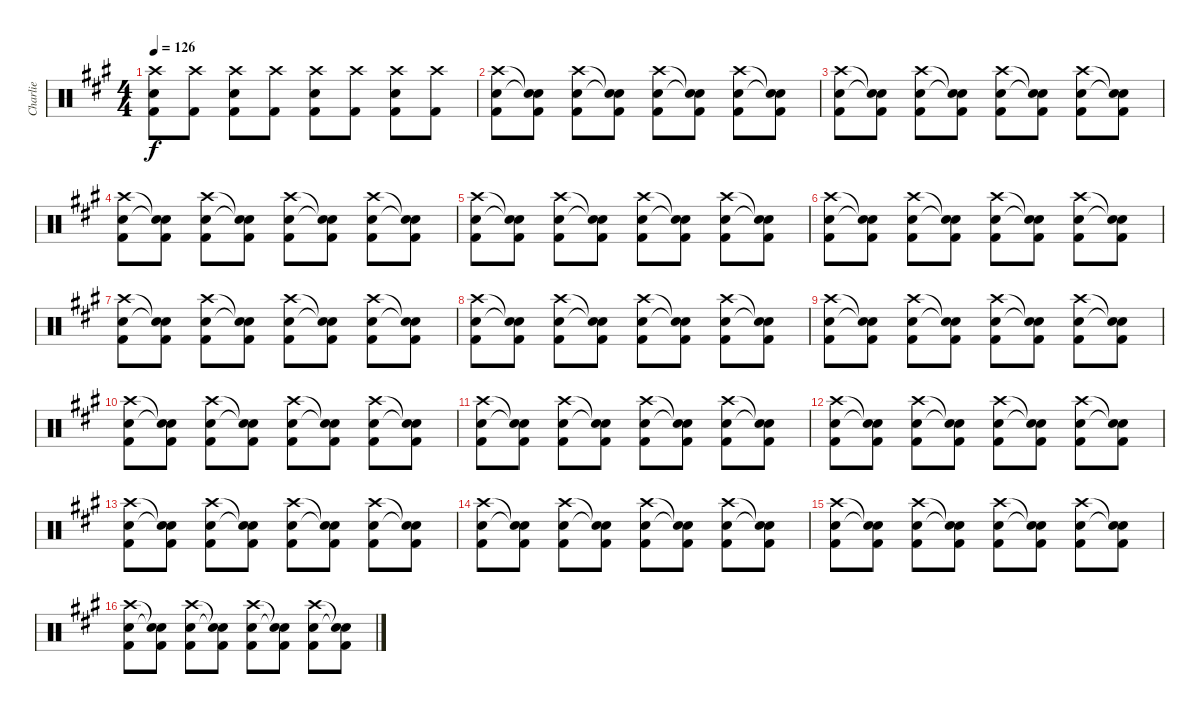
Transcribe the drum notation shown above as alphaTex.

\track ("Charlie" "Charlie") {instrument percussion}
\staff {score}
\articulation defaults
\ts (4 4)
\tempo 126
\clef neutral
\ks a
("Crash high (hit)" "Snare (hit) 2" "Kick (hit) 2").8{dy f} ("Crash high (hit)" "Kick (hit) 2").8 ("Crash high (hit)" "Snare (hit) 2" "Kick (hit) 2").8 ("Crash high (hit)" "Kick (hit) 2").8 ("Crash high (hit)" "Snare (hit) 2" "Kick (hit) 2").8 ("Crash high (hit)" "Kick (hit) 2").8 ("Crash high (hit)" "Snare (hit) 2" "Kick (hit) 2").8 ("Crash high (hit)" "Kick (hit) 2").8 |
("Crash high (hit)" "Snare (hit) 2" "Kick (hit) 2").8 ("Snare (hit)"{t} "Snare (hit)"{t} "Kick (hit) 2").8 ("Crash high (hit)" "Snare (hit) 2" "Kick (hit) 2").8 ("Snare (hit)"{t} "Snare (hit)"{t} "Kick (hit) 2").8 ("Crash high (hit)" "Snare (hit) 2" "Kick (hit) 2").8 ("Snare (hit)"{t} "Snare (hit)"{t} "Kick (hit) 2").8 ("Crash high (hit)" "Snare (hit) 2" "Kick (hit) 2").8 ("Snare (hit)"{t} "Snare (hit)"{t} "Kick (hit) 2").8 |
("Crash high (hit)" "Snare (hit) 2" "Kick (hit) 2").8 ("Snare (hit)"{t} "Snare (hit)"{t} "Kick (hit) 2").8 ("Crash high (hit)" "Snare (hit) 2" "Kick (hit) 2").8 ("Snare (hit)"{t} "Snare (hit)"{t} "Kick (hit) 2").8 ("Crash high (hit)" "Snare (hit) 2" "Kick (hit) 2").8 ("Snare (hit)"{t} "Snare (hit)"{t} "Kick (hit) 2").8 ("Crash high (hit)" "Snare (hit) 2" "Kick (hit) 2").8 ("Snare (hit)"{t} "Snare (hit)"{t} "Kick (hit) 2").8 |
("Crash high (hit)" "Snare (hit) 2" "Kick (hit) 2").8 ("Snare (hit)"{t} "Snare (hit)"{t} "Kick (hit) 2").8 ("Crash high (hit)" "Snare (hit) 2" "Kick (hit) 2").8 ("Snare (hit)"{t} "Snare (hit)"{t} "Kick (hit) 2").8 ("Crash high (hit)" "Snare (hit) 2" "Kick (hit) 2").8 ("Snare (hit)"{t} "Snare (hit)"{t} "Kick (hit) 2").8 ("Crash high (hit)" "Snare (hit) 2" "Kick (hit) 2").8 ("Snare (hit)"{t} "Snare (hit)"{t} "Kick (hit) 2").8 |
("Crash high (hit)" "Snare (hit) 2" "Kick (hit) 2").8 ("Snare (hit)"{t} "Snare (hit)"{t} "Kick (hit) 2").8 ("Crash high (hit)" "Snare (hit) 2" "Kick (hit) 2").8 ("Snare (hit)"{t} "Snare (hit)"{t} "Kick (hit) 2").8 ("Crash high (hit)" "Snare (hit) 2" "Kick (hit) 2").8 ("Snare (hit)"{t} "Snare (hit)"{t} "Kick (hit) 2").8 ("Crash high (hit)" "Snare (hit) 2" "Kick (hit) 2").8 ("Snare (hit)"{t} "Snare (hit)"{t} "Kick (hit) 2").8 |
("Crash high (hit)" "Snare (hit) 2" "Kick (hit) 2").8 ("Snare (hit)"{t} "Snare (hit)"{t} "Kick (hit) 2").8 ("Crash high (hit)" "Snare (hit) 2" "Kick (hit) 2").8 ("Snare (hit)"{t} "Snare (hit)"{t} "Kick (hit) 2").8 ("Crash high (hit)" "Snare (hit) 2" "Kick (hit) 2").8 ("Snare (hit)"{t} "Snare (hit)"{t} "Kick (hit) 2").8 ("Crash high (hit)" "Snare (hit) 2" "Kick (hit) 2").8 ("Snare (hit)"{t} "Snare (hit)"{t} "Kick (hit) 2").8 |
("Crash high (hit)" "Snare (hit) 2" "Kick (hit) 2").8 ("Snare (hit)"{t} "Snare (hit)"{t} "Kick (hit) 2").8 ("Crash high (hit)" "Snare (hit) 2" "Kick (hit) 2").8 ("Snare (hit)"{t} "Snare (hit)"{t} "Kick (hit) 2").8 ("Crash high (hit)" "Snare (hit) 2" "Kick (hit) 2").8 ("Snare (hit)"{t} "Snare (hit)"{t} "Kick (hit) 2").8 ("Crash high (hit)" "Snare (hit) 2" "Kick (hit) 2").8 ("Snare (hit)"{t} "Snare (hit)"{t} "Kick (hit) 2").8 |
("Crash high (hit)" "Snare (hit) 2" "Kick (hit) 2").8 ("Snare (hit)"{t} "Snare (hit)"{t} "Kick (hit) 2").8 ("Crash high (hit)" "Snare (hit) 2" "Kick (hit) 2").8 ("Snare (hit)"{t} "Snare (hit)"{t} "Kick (hit) 2").8 ("Crash high (hit)" "Snare (hit) 2" "Kick (hit) 2").8 ("Snare (hit)"{t} "Snare (hit)"{t} "Kick (hit) 2").8 ("Crash high (hit)" "Snare (hit) 2" "Kick (hit) 2").8 ("Snare (hit)"{t} "Snare (hit)"{t} "Kick (hit) 2").8 |
("Crash high (hit)" "Snare (hit) 2" "Kick (hit) 2").8 ("Snare (hit)"{t} "Snare (hit)"{t} "Kick (hit) 2").8 ("Crash high (hit)" "Snare (hit) 2" "Kick (hit) 2").8 ("Snare (hit)"{t} "Snare (hit)"{t} "Kick (hit) 2").8 ("Crash high (hit)" "Snare (hit) 2" "Kick (hit) 2").8 ("Snare (hit)"{t} "Snare (hit)"{t} "Kick (hit) 2").8 ("Crash high (hit)" "Snare (hit) 2" "Kick (hit) 2").8 ("Snare (hit)"{t} "Snare (hit)"{t} "Kick (hit) 2").8 |
("Crash high (hit)" "Snare (hit) 2" "Kick (hit) 2").8 ("Snare (hit)"{t} "Snare (hit)"{t} "Kick (hit) 2").8 ("Crash high (hit)" "Snare (hit) 2" "Kick (hit) 2").8 ("Snare (hit)"{t} "Snare (hit)"{t} "Kick (hit) 2").8 ("Crash high (hit)" "Snare (hit) 2" "Kick (hit) 2").8 ("Snare (hit)"{t} "Snare (hit)"{t} "Kick (hit) 2").8 ("Crash high (hit)" "Snare (hit) 2" "Kick (hit) 2").8 ("Snare (hit)"{t} "Snare (hit)"{t} "Kick (hit) 2").8 |
("Crash high (hit)" "Snare (hit) 2" "Kick (hit) 2").8 ("Snare (hit)"{t} "Snare (hit)"{t} "Kick (hit) 2").8 ("Crash high (hit)" "Snare (hit) 2" "Kick (hit) 2").8 ("Snare (hit)"{t} "Snare (hit)"{t} "Kick (hit) 2").8 ("Crash high (hit)" "Snare (hit) 2" "Kick (hit) 2").8 ("Snare (hit)"{t} "Snare (hit)"{t} "Kick (hit) 2").8 ("Crash high (hit)" "Snare (hit) 2" "Kick (hit) 2").8 ("Snare (hit)"{t} "Snare (hit)"{t} "Kick (hit) 2").8 |
("Crash high (hit)" "Snare (hit) 2" "Kick (hit) 2").8 ("Snare (hit)"{t} "Snare (hit)"{t} "Kick (hit) 2").8 ("Crash high (hit)" "Snare (hit) 2" "Kick (hit) 2").8 ("Snare (hit)"{t} "Snare (hit)"{t} "Kick (hit) 2").8 ("Crash high (hit)" "Snare (hit) 2" "Kick (hit) 2").8 ("Snare (hit)"{t} "Snare (hit)"{t} "Kick (hit) 2").8 ("Crash high (hit)" "Snare (hit) 2" "Kick (hit) 2").8 ("Snare (hit)"{t} "Snare (hit)"{t} "Kick (hit) 2").8 |
("Crash high (hit)" "Snare (hit) 2" "Kick (hit) 2").8 ("Snare (hit)"{t} "Snare (hit)"{t} "Kick (hit) 2").8 ("Crash high (hit)" "Snare (hit) 2" "Kick (hit) 2").8 ("Snare (hit)"{t} "Snare (hit)"{t} "Kick (hit) 2").8 ("Crash high (hit)" "Snare (hit) 2" "Kick (hit) 2").8 ("Snare (hit)"{t} "Snare (hit)"{t} "Kick (hit) 2").8 ("Crash high (hit)" "Snare (hit) 2" "Kick (hit) 2").8 ("Snare (hit)"{t} "Snare (hit)"{t} "Kick (hit) 2").8 |
("Crash high (hit)" "Snare (hit) 2" "Kick (hit) 2").8 ("Snare (hit)"{t} "Snare (hit)"{t} "Kick (hit) 2").8 ("Crash high (hit)" "Snare (hit) 2" "Kick (hit) 2").8 ("Snare (hit)"{t} "Snare (hit)"{t} "Kick (hit) 2").8 ("Crash high (hit)" "Snare (hit) 2" "Kick (hit) 2").8 ("Snare (hit)"{t} "Snare (hit)"{t} "Kick (hit) 2").8 ("Crash high (hit)" "Snare (hit) 2" "Kick (hit) 2").8 ("Snare (hit)"{t} "Snare (hit)"{t} "Kick (hit) 2").8 |
("Crash high (hit)" "Snare (hit) 2" "Kick (hit) 2").8 ("Snare (hit)"{t} "Snare (hit)"{t} "Kick (hit) 2").8 ("Crash high (hit)" "Snare (hit) 2" "Kick (hit) 2").8 ("Snare (hit)"{t} "Snare (hit)"{t} "Kick (hit) 2").8 ("Crash high (hit)" "Snare (hit) 2" "Kick (hit) 2").8 ("Snare (hit)"{t} "Snare (hit)"{t} "Kick (hit) 2").8 ("Crash high (hit)" "Snare (hit) 2" "Kick (hit) 2").8 ("Snare (hit)"{t} "Snare (hit)"{t} "Kick (hit) 2").8 |
("Crash high (hit)" "Snare (hit) 2" "Kick (hit) 2").8 ("Snare (hit)"{t} "Snare (hit)"{t} "Kick (hit) 2").8 ("Crash high (hit)" "Snare (hit) 2" "Kick (hit) 2").8 ("Snare (hit)"{t} "Snare (hit)"{t} "Kick (hit) 2").8 ("Crash high (hit)" "Snare (hit) 2" "Kick (hit) 2").8 ("Snare (hit)"{t} "Snare (hit)"{t} "Kick (hit) 2").8 ("Crash high (hit)" "Snare (hit) 2" "Kick (hit) 2").8 ("Snare (hit)"{t} "Snare (hit)"{t} "Kick (hit) 2").8
